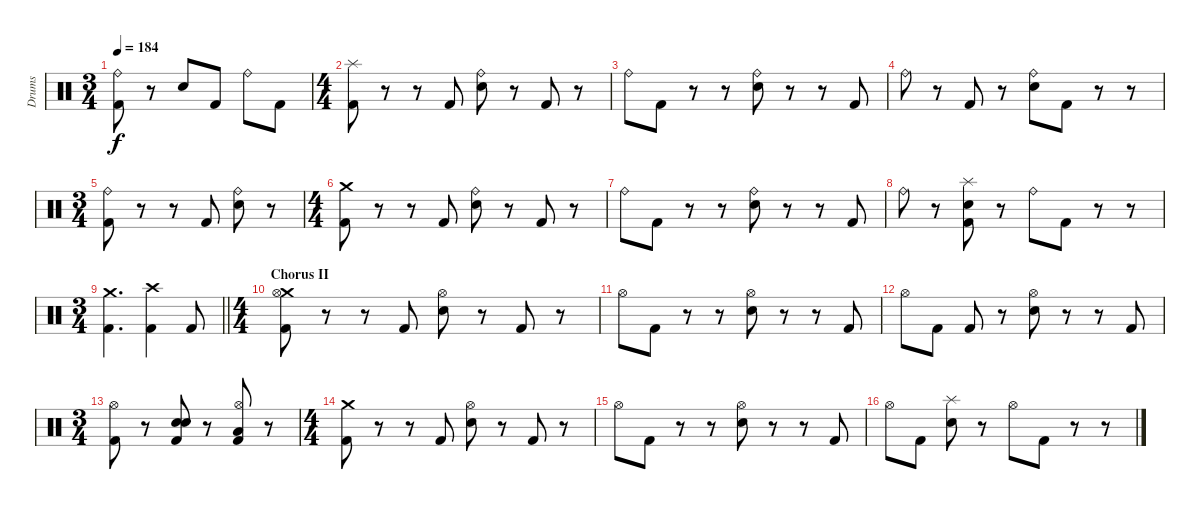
\track ("Drums" "Drums") {instrument percussion}
\staff {score}
\articulation defaults
\ts (3 4)
\tempo 184
\clef neutral
\ks c
("Ride (bell)" "Kick (hit) 2").8{dy f} r.8 "Snare (hit) 2".8 "Kick (hit) 2".8 "Ride (bell)".8 "Kick (hit) 2".8 |
\ts (4 4)
("Splash (hit)" "Kick (hit) 2").8 r.8 r.8 "Kick (hit) 2".8 ("Ride (bell)" "Snare (hit) 2").8 r.8 "Kick (hit) 2".8 r.8 |
"Ride (bell)".8 "Kick (hit) 2".8 r.8 r.8 ("Ride (bell)" "Snare (hit) 2").8 r.8 r.8 "Kick (hit) 2".8 |
"Ride (bell)".8 r.8 "Kick (hit) 2".8 r.8 ("Ride (bell)" "Snare (hit) 2").8 "Kick (hit) 2".8 r.8 r.8 |
\ts (3 4)
("Ride (bell)" "Kick (hit) 2").8 r.8 r.8 "Kick (hit) 2".8 ("Ride (bell)" "Snare (hit) 2").8 r.8 |
\ts (4 4)
("Crash medium (hit)" "Kick (hit) 2").8 r.8 r.8 "Kick (hit) 2".8 ("Ride (bell)" "Snare (hit) 2").8 r.8 "Kick (hit) 2".8 r.8 |
"Ride (bell)".8 "Kick (hit) 2".8 r.8 r.8 ("Ride (bell)" "Snare (hit) 2").8 r.8 r.8 "Kick (hit) 2".8 |
"Ride (bell)".8 r.8 ("Splash (hit)" "Snare (hit) 2" "Kick (hit) 2").8 r.8 "Ride (bell)".8 "Kick (hit) 2".8 r.8 r.8 |
\ts (3 4)
\barLineRight lightlight
("Crash medium (hit)" "Kick (hit) 2").4{d} ("Crash high (hit)" "Kick (hit) 2").4 "Kick (hit) 2".8 |
\ts (4 4)
\section ("" "Chorus II")
("Crash medium (hit)" "Hi-Hat (open)" "Kick (hit) 2").8 r.8 r.8 "Kick (hit) 2".8 ("Hi-Hat (open)" "Snare (hit) 2").8 r.8 "Kick (hit) 2".8 r.8 |
"Hi-Hat (open)".8 "Kick (hit) 2".8 r.8 r.8 ("Hi-Hat (open)" "Snare (hit) 2").8 r.8 r.8 "Kick (hit) 2".8 |
"Hi-Hat (open)".8 "Kick (hit) 2".8 "Kick (hit) 2".8 r.8 ("Hi-Hat (open)" "Snare (hit) 2").8 r.8 r.8 "Kick (hit) 2".8 |
\ts (3 4)
("Hi-Hat (open)" "Kick (hit) 2").8 r.8 ("Snare (hit) 2" "Snare (hit) 2" "Kick (hit) 2").8 r.8 ("Hi-Hat (open)" "Low Floor Tom (hit)" "Kick (hit) 2").8 r.8 |
\ts (4 4)
("Crash medium (hit)" "Kick (hit) 2").8 r.8 r.8 "Kick (hit) 2".8 ("Hi-Hat (open)" "Snare (hit) 2").8 r.8 "Kick (hit) 2".8 r.8 |
"Hi-Hat (open)".8 "Kick (hit) 2".8 r.8 r.8 ("Hi-Hat (open)" "Snare (hit) 2").8 r.8 r.8 "Kick (hit) 2".8 |
"Hi-Hat (open)".8 "Kick (hit) 2".8 ("Splash (hit)" "Snare (hit) 2").8 r.8 "Hi-Hat (open)".8 "Kick (hit) 2".8 r.8 r.8
